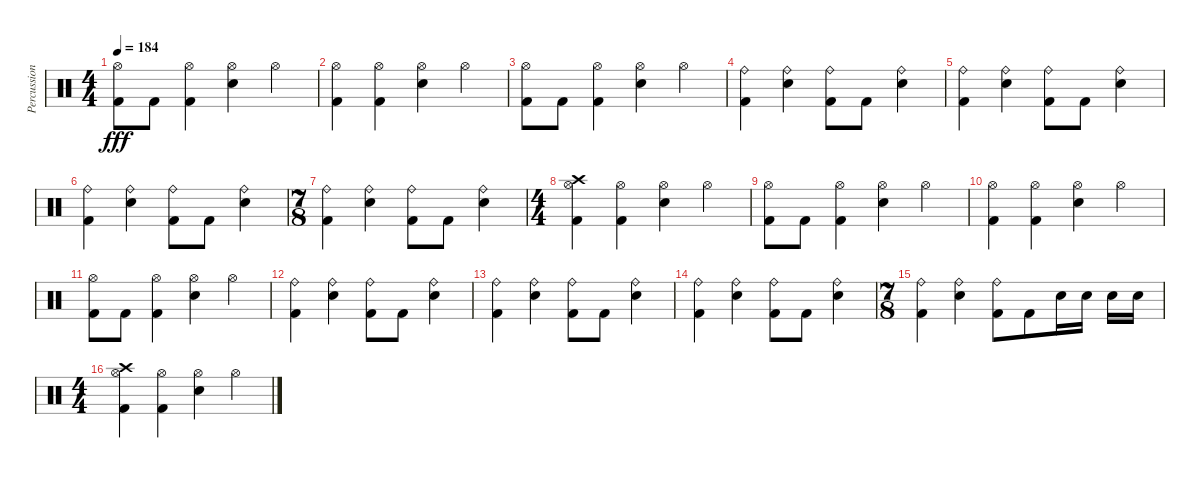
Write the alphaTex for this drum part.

\track ("Percussion" "Percussion") {instrument percussion}
\staff {score}
\articulation defaults
\ts (4 4)
\tempo 184
\clef neutral
\ks c
("Hi-Hat (open)" "Kick (hit) 2").8{dy fff} "Kick (hit) 2".8 ("Hi-Hat (open)" "Kick (hit) 2").4 ("Hi-Hat (open)" "Snare (hit) 2").4 "Hi-Hat (open)".4 |
("Hi-Hat (open)" "Kick (hit) 2").4 ("Hi-Hat (open)" "Kick (hit) 2").4 ("Hi-Hat (open)" "Snare (hit) 2").4 "Hi-Hat (open)".4 |
("Hi-Hat (open)" "Kick (hit) 2").8 "Kick (hit) 2".8 ("Hi-Hat (open)" "Kick (hit) 2").4 ("Hi-Hat (open)" "Snare (hit) 2").4 "Hi-Hat (open)".4 |
("Ride (bell)" "Kick (hit) 2").4 ("Ride (bell)" "Snare (hit) 2").4 ("Ride (bell)" "Kick (hit) 2").8 "Kick (hit) 2".8 ("Ride (bell)" "Snare (hit) 2").4 |
("Ride (bell)" "Kick (hit) 2").4 ("Ride (bell)" "Snare (hit) 2").4 ("Ride (bell)" "Kick (hit) 2").8 "Kick (hit) 2".8 ("Ride (bell)" "Snare (hit) 2").4 |
("Ride (bell)" "Kick (hit) 2").4 ("Ride (bell)" "Snare (hit) 2").4 ("Ride (bell)" "Kick (hit) 2").8 "Kick (hit) 2".8 ("Ride (bell)" "Snare (hit) 2").4 |
\ts (7 8)
("Ride (bell)" "Kick (hit) 2").4 ("Ride (bell)" "Snare (hit) 2").4 ("Ride (bell)" "Kick (hit) 2").8 "Kick (hit) 2".8 ("Ride (bell)" "Snare (hit) 2").4 |
\ts (4 4)
("Crash high (hit)" "Hi-Hat (open)" "Kick (hit) 2").4 ("Hi-Hat (open)" "Kick (hit) 2").4 ("Hi-Hat (open)" "Snare (hit) 2").4 "Hi-Hat (open)".4 |
("Hi-Hat (open)" "Kick (hit) 2").8 "Kick (hit) 2".8 ("Hi-Hat (open)" "Kick (hit) 2").4 ("Hi-Hat (open)" "Snare (hit) 2").4 "Hi-Hat (open)".4 |
("Hi-Hat (open)" "Kick (hit) 2").4 ("Hi-Hat (open)" "Kick (hit) 2").4 ("Hi-Hat (open)" "Snare (hit) 2").4 "Hi-Hat (open)".4 |
("Hi-Hat (open)" "Kick (hit) 2").8 "Kick (hit) 2".8 ("Hi-Hat (open)" "Kick (hit) 2").4 ("Hi-Hat (open)" "Snare (hit) 2").4 "Hi-Hat (open)".4 |
("Ride (bell)" "Kick (hit) 2").4 ("Ride (bell)" "Snare (hit) 2").4 ("Ride (bell)" "Kick (hit) 2").8 "Kick (hit) 2".8 ("Ride (bell)" "Snare (hit) 2").4 |
("Ride (bell)" "Kick (hit) 2").4 ("Ride (bell)" "Snare (hit) 2").4 ("Ride (bell)" "Kick (hit) 2").8 "Kick (hit) 2".8 ("Ride (bell)" "Snare (hit) 2").4 |
("Ride (bell)" "Kick (hit) 2").4 ("Ride (bell)" "Snare (hit) 2").4 ("Ride (bell)" "Kick (hit) 2").8 "Kick (hit) 2".8 ("Ride (bell)" "Snare (hit) 2").4 |
\ts (7 8)
("Ride (bell)" "Kick (hit) 2").4 ("Ride (bell)" "Snare (hit) 2").4 ("Ride (bell)" "Kick (hit) 2").8 "Kick (hit) 2".8 "Snare (hit) 2".16 "Snare (hit) 2".16 "Snare (hit) 2".16 "Snare (hit) 2".16 |
\ts (4 4)
("Crash high (hit)" "Hi-Hat (open)" "Kick (hit) 2").4 ("Hi-Hat (open)" "Kick (hit) 2").4 ("Hi-Hat (open)" "Snare (hit) 2").4 "Hi-Hat (open)".4
